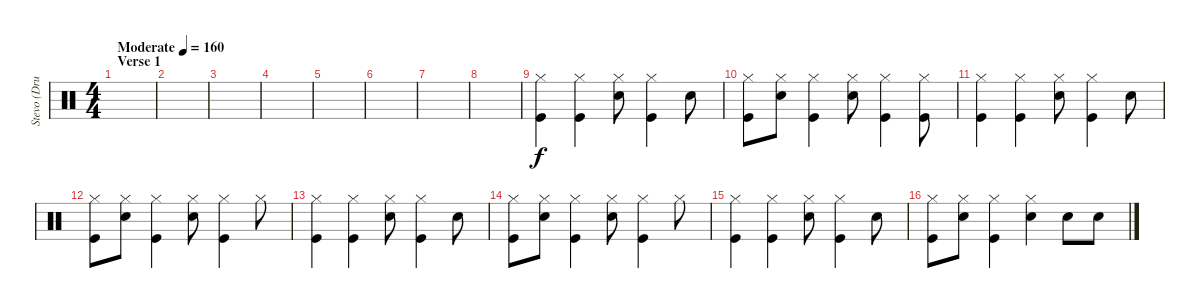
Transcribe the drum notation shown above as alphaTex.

\track ("Stevo (Drums)" "Stevo (Dru") {instrument percussion}
\staff {score}
\articulation defaults
\ts (4 4)
\section ("" "Verse 1")
\tempo (160 "Moderate")
\clef neutral
\ks c
|
|
|
|
|
|
|
|
("Hi-Hat (closed)" "Kick (hit)").4 ("Hi-Hat (closed)" "Kick (hit)").4 ("Hi-Hat (closed)" "Electric Snare (hit)").8 ("Hi-Hat (closed)" "Kick (hit)").4 "Electric Snare (hit)".8 |
("Hi-Hat (closed)" "Kick (hit)").8 ("Hi-Hat (closed)" "Electric Snare (hit)").8 ("Hi-Hat (closed)" "Kick (hit)").4 ("Hi-Hat (closed)" "Electric Snare (hit)").8 ("Hi-Hat (closed)" "Kick (hit)").4 ("Hi-Hat (closed)" "Kick (hit)").8 |
("Hi-Hat (closed)" "Kick (hit)").4 ("Hi-Hat (closed)" "Kick (hit)").4 ("Hi-Hat (closed)" "Electric Snare (hit)").8 ("Hi-Hat (closed)" "Kick (hit)").4 "Electric Snare (hit)".8 |
("Hi-Hat (closed)" "Kick (hit)").8 ("Hi-Hat (closed)" "Electric Snare (hit)").8 ("Hi-Hat (closed)" "Kick (hit)").4 ("Hi-Hat (closed)" "Electric Snare (hit)").8 ("Hi-Hat (closed)" "Kick (hit)").4 "Hi-Hat (closed)".8 |
("Hi-Hat (closed)" "Kick (hit)").4 ("Hi-Hat (closed)" "Kick (hit)").4 ("Hi-Hat (closed)" "Electric Snare (hit)").8 ("Hi-Hat (closed)" "Kick (hit)").4 "Electric Snare (hit)".8 |
("Hi-Hat (closed)" "Kick (hit)").8 ("Hi-Hat (closed)" "Electric Snare (hit)").8 ("Hi-Hat (closed)" "Kick (hit)").4 ("Hi-Hat (closed)" "Electric Snare (hit)").8 ("Hi-Hat (closed)" "Kick (hit)").4 "Hi-Hat (closed)".8 |
("Hi-Hat (closed)" "Kick (hit)").4 ("Hi-Hat (closed)" "Kick (hit)").4 ("Hi-Hat (closed)" "Electric Snare (hit)").8 ("Hi-Hat (closed)" "Kick (hit)").4 "Electric Snare (hit)".8 |
("Hi-Hat (closed)" "Kick (hit)").8 ("Hi-Hat (closed)" "Electric Snare (hit)").8 ("Hi-Hat (closed)" "Kick (hit)").4 ("Hi-Hat (closed)" "Electric Snare (hit)").4 "Electric Snare (hit)".8 "Electric Snare (hit)".8
